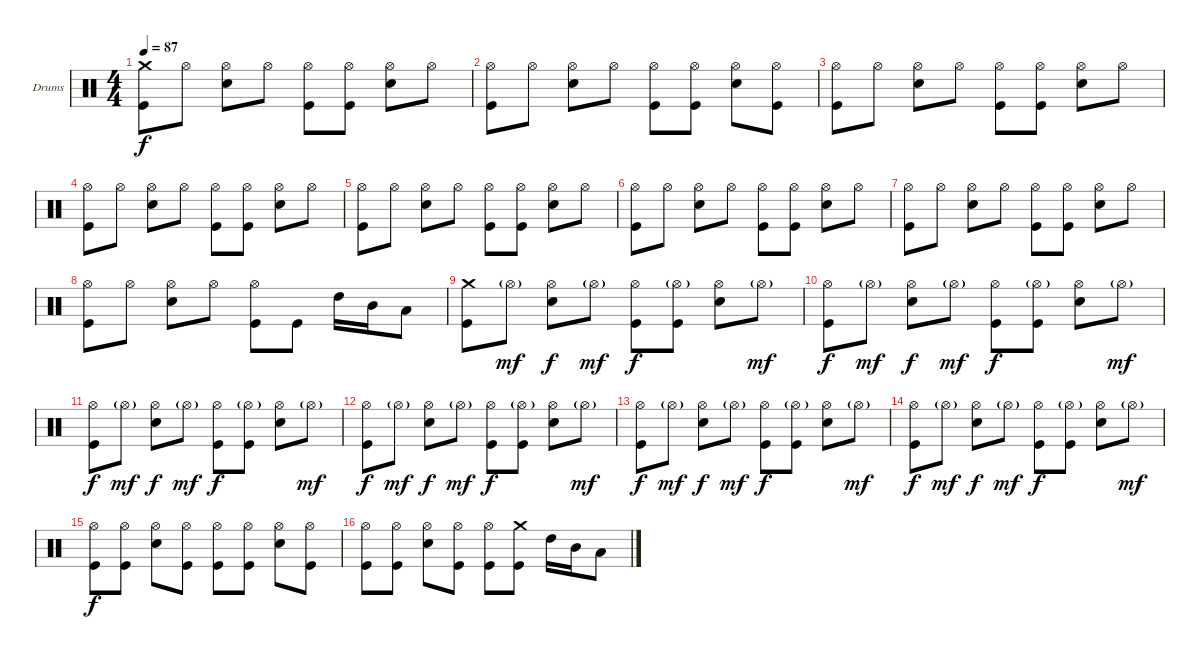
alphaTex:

\bracketExtendMode groupsimilarinstruments
\firstSystemTrackNameOrientation horizontal
\otherSystemsTrackNameOrientation horizontal
\track ("Drumkit" "Drums") {instrument percussion}
\staff {score}
\articulation defaults
\ts (4 4)
\tempo 87
\clef neutral
\ks c
("Crash medium (hit)" "Kick (hit)").8{dy f} "Hi-Hat (open)".8 ("Hi-Hat (open)" "Snare (hit) 2").8 "Hi-Hat (open)".8 ("Hi-Hat (open)" "Kick (hit)").8 ("Hi-Hat (open)" "Kick (hit)").8 ("Hi-Hat (open)" "Snare (hit) 2").8 "Hi-Hat (open)".8 |
("Hi-Hat (open)" "Kick (hit)").8 "Hi-Hat (open)".8 ("Hi-Hat (open)" "Snare (hit) 2").8 "Hi-Hat (open)".8 ("Hi-Hat (open)" "Kick (hit)").8 ("Hi-Hat (open)" "Kick (hit)").8 ("Hi-Hat (open)" "Snare (hit) 2").8 ("Hi-Hat (open)" "Kick (hit)").8 |
("Hi-Hat (open)" "Kick (hit)").8 "Hi-Hat (open)".8 ("Hi-Hat (open)" "Snare (hit) 2").8 "Hi-Hat (open)".8 ("Hi-Hat (open)" "Kick (hit)").8 ("Hi-Hat (open)" "Kick (hit)").8 ("Hi-Hat (open)" "Snare (hit) 2").8 "Hi-Hat (open)".8 |
("Hi-Hat (open)" "Kick (hit)").8 "Hi-Hat (open)".8 ("Hi-Hat (open)" "Snare (hit) 2").8 "Hi-Hat (open)".8 ("Hi-Hat (open)" "Kick (hit)").8 ("Hi-Hat (open)" "Kick (hit)").8 ("Hi-Hat (open)" "Snare (hit) 2").8 "Hi-Hat (open)".8 |
("Hi-Hat (open)" "Kick (hit)").8 "Hi-Hat (open)".8 ("Hi-Hat (open)" "Snare (hit) 2").8 "Hi-Hat (open)".8 ("Hi-Hat (open)" "Kick (hit)").8 ("Hi-Hat (open)" "Kick (hit)").8 ("Hi-Hat (open)" "Snare (hit) 2").8 "Hi-Hat (open)".8 |
("Hi-Hat (open)" "Kick (hit)").8 "Hi-Hat (open)".8 ("Hi-Hat (open)" "Snare (hit) 2").8 "Hi-Hat (open)".8 ("Hi-Hat (open)" "Kick (hit)").8 ("Hi-Hat (open)" "Kick (hit)").8 ("Hi-Hat (open)" "Snare (hit) 2").8 "Hi-Hat (open)".8 |
("Hi-Hat (open)" "Kick (hit)").8 "Hi-Hat (open)".8 ("Hi-Hat (open)" "Snare (hit) 2").8 "Hi-Hat (open)".8 ("Hi-Hat (open)" "Kick (hit)").8 ("Hi-Hat (open)" "Kick (hit)").8 ("Hi-Hat (open)" "Snare (hit) 2").8 "Hi-Hat (open)".8 |
("Hi-Hat (open)" "Kick (hit)").8 "Hi-Hat (open)".8 ("Hi-Hat (open)" "Snare (hit) 2").8 "Hi-Hat (open)".8 ("Hi-Hat (open)" "Kick (hit)").8 "Kick (hit)".8 "High Tom (hit)".16 "Mid Tom (hit)".16 "Low Tom (hit)".8 |
("Crash medium (hit)" "Kick (hit)").8 "Hi-Hat (open)"{g}.8{dy mf} ("Hi-Hat (open)" "Snare (hit) 2").8{dy f} "Hi-Hat (open)"{g}.8{dy mf} ("Hi-Hat (open)" "Kick (hit)").8{dy f} ("Hi-Hat (open)"{g} "Kick (hit)").8 ("Hi-Hat (open)" "Snare (hit) 2").8 "Hi-Hat (open)"{g}.8{dy mf} |
("Hi-Hat (open)" "Kick (hit)").8{dy f} "Hi-Hat (open)"{g}.8{dy mf} ("Hi-Hat (open)" "Snare (hit) 2").8{dy f} "Hi-Hat (open)"{g}.8{dy mf} ("Hi-Hat (open)" "Kick (hit)").8{dy f} ("Hi-Hat (open)"{g} "Kick (hit)").8 ("Hi-Hat (open)" "Snare (hit) 2").8 "Hi-Hat (open)"{g}.8{dy mf} |
("Hi-Hat (open)" "Kick (hit)").8{dy f} "Hi-Hat (open)"{g}.8{dy mf} ("Hi-Hat (open)" "Snare (hit) 2").8{dy f} "Hi-Hat (open)"{g}.8{dy mf} ("Hi-Hat (open)" "Kick (hit)").8{dy f} ("Hi-Hat (open)"{g} "Kick (hit)").8 ("Hi-Hat (open)" "Snare (hit) 2").8 "Hi-Hat (open)"{g}.8{dy mf} |
("Hi-Hat (open)" "Kick (hit)").8{dy f} "Hi-Hat (open)"{g}.8{dy mf} ("Hi-Hat (open)" "Snare (hit) 2").8{dy f} "Hi-Hat (open)"{g}.8{dy mf} ("Hi-Hat (open)" "Kick (hit)").8{dy f} ("Hi-Hat (open)"{g} "Kick (hit)").8 ("Hi-Hat (open)" "Snare (hit) 2").8 "Hi-Hat (open)"{g}.8{dy mf} |
("Hi-Hat (open)" "Kick (hit)").8{dy f} "Hi-Hat (open)"{g}.8{dy mf} ("Hi-Hat (open)" "Snare (hit) 2").8{dy f} "Hi-Hat (open)"{g}.8{dy mf} ("Hi-Hat (open)" "Kick (hit)").8{dy f} ("Hi-Hat (open)"{g} "Kick (hit)").8 ("Hi-Hat (open)" "Snare (hit) 2").8 "Hi-Hat (open)"{g}.8{dy mf} |
("Hi-Hat (open)" "Kick (hit)").8{dy f} "Hi-Hat (open)"{g}.8{dy mf} ("Hi-Hat (open)" "Snare (hit) 2").8{dy f} "Hi-Hat (open)"{g}.8{dy mf} ("Hi-Hat (open)" "Kick (hit)").8{dy f} ("Hi-Hat (open)"{g} "Kick (hit)").8 ("Hi-Hat (open)" "Snare (hit) 2").8 "Hi-Hat (open)"{g}.8{dy mf} |
("Hi-Hat (open)" "Kick (hit)").8{dy f} ("Hi-Hat (open)" "Kick (hit)").8 ("Hi-Hat (open)" "Snare (hit) 2").8 ("Hi-Hat (open)" "Kick (hit)").8 ("Hi-Hat (open)" "Kick (hit)").8 ("Hi-Hat (open)" "Kick (hit)").8 ("Hi-Hat (open)" "Snare (hit) 2").8 ("Hi-Hat (open)" "Kick (hit)").8 |
("Hi-Hat (open)" "Kick (hit)").8 ("Hi-Hat (open)" "Kick (hit)").8 ("Hi-Hat (open)" "Snare (hit) 2").8 ("Hi-Hat (open)" "Kick (hit)").8 ("Hi-Hat (open)" "Kick (hit)").8 ("Crash medium (hit)" "Kick (hit)").8 "High Tom (hit)".16 "Mid Tom (hit)".16 "Low Tom (hit)".8
